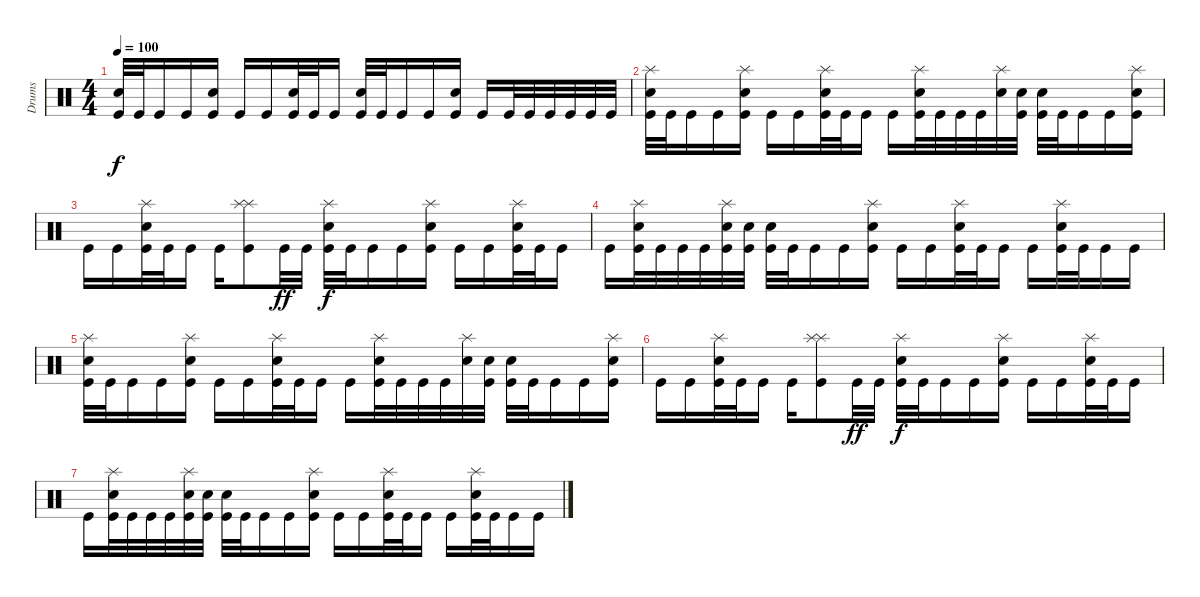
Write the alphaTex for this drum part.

\track ("Drums" "Drums") {instrument percussion}
\staff {score}
\articulation defaults
\ts (4 4)
\tempo 100
\clef neutral
\ks c
("Electric Snare (hit)" "Kick (hit)").32{dy f} "Kick (hit)".32 "Kick (hit)".16 "Kick (hit)".16 ("Electric Snare (hit)" "Kick (hit)").16 "Kick (hit)".16 "Kick (hit)".16 ("Electric Snare (hit)" "Kick (hit)").32 "Kick (hit)".32 "Kick (hit)".16 ("Electric Snare (hit)" "Kick (hit)").32 "Kick (hit)".32 "Kick (hit)".16 "Kick (hit)".16 ("Electric Snare (hit)" "Kick (hit)").16 "Kick (hit)".16 "Kick (hit)".32 "Kick (hit)".32 "Kick (hit)".32 "Kick (hit)".32 "Kick (hit)".32 "Kick (hit)".32 |
("Splash (hit)" "Electric Snare (hit)" "Kick (hit)").32 "Kick (hit)".32 "Kick (hit)".16 "Kick (hit)".16 ("Splash (hit)" "Electric Snare (hit)" "Kick (hit)").16 "Kick (hit)".16 "Kick (hit)".16 ("Splash (hit)" "Electric Snare (hit)" "Kick (hit)").32 "Kick (hit)".32 "Kick (hit)".16 "Kick (hit)".16 ("Splash (hit)" "Electric Snare (hit)" "Kick (hit)").32 "Kick (hit)".32 "Kick (hit)".32 "Kick (hit)".32 ("Splash (hit)" "Electric Snare (hit)").32 ("Electric Snare (hit)" "Kick (hit)").32 ("Electric Snare (hit)" "Kick (hit)").32 "Kick (hit)".32 "Kick (hit)".16 "Kick (hit)".16 ("Splash (hit)" "Electric Snare (hit)" "Kick (hit)").16 |
"Kick (hit)".16 "Kick (hit)".16 ("Splash (hit)" "Electric Snare (hit)" "Kick (hit)").32 "Kick (hit)".32 "Kick (hit)".16 "Kick (hit)".16 ("Splash (hit)" "Splash (hit)" "Kick (hit)").8 "Kick (hit)".32{dy ff} "Kick (hit)".32 ("Splash (hit)" "Electric Snare (hit)" "Kick (hit)").32{dy f} "Kick (hit)".32 "Kick (hit)".16 "Kick (hit)".16 ("Splash (hit)" "Electric Snare (hit)" "Kick (hit)").16 "Kick (hit)".16 "Kick (hit)".16 ("Splash (hit)" "Electric Snare (hit)" "Kick (hit)").32 "Kick (hit)".32 "Kick (hit)".16 |
"Kick (hit)".16 ("Splash (hit)" "Electric Snare (hit)" "Kick (hit)").32 "Kick (hit)".32 "Kick (hit)".32 "Kick (hit)".32 ("Splash (hit)" "Electric Snare (hit)" "Kick (hit)").32 ("Electric Snare (hit)" "Kick (hit)").32 ("Electric Snare (hit)" "Kick (hit)").32 "Kick (hit)".32 "Kick (hit)".16 "Kick (hit)".16 ("Splash (hit)" "Electric Snare (hit)" "Kick (hit)").16 "Kick (hit)".16 "Kick (hit)".16 ("Splash (hit)" "Electric Snare (hit)" "Kick (hit)").32 "Kick (hit)".32 "Kick (hit)".16 "Kick (hit)".16 ("Splash (hit)" "Electric Snare (hit)" "Kick (hit)").32 "Kick (hit)".32 "Kick (hit)".16 "Kick (hit)".16 |
("Splash (hit)" "Electric Snare (hit)" "Kick (hit)").32 "Kick (hit)".32 "Kick (hit)".16 "Kick (hit)".16 ("Splash (hit)" "Electric Snare (hit)" "Kick (hit)").16 "Kick (hit)".16 "Kick (hit)".16 ("Splash (hit)" "Electric Snare (hit)" "Kick (hit)").32 "Kick (hit)".32 "Kick (hit)".16 "Kick (hit)".16 ("Splash (hit)" "Electric Snare (hit)" "Kick (hit)").32 "Kick (hit)".32 "Kick (hit)".32 "Kick (hit)".32 ("Splash (hit)" "Electric Snare (hit)").32 ("Electric Snare (hit)" "Kick (hit)").32 ("Electric Snare (hit)" "Kick (hit)").32 "Kick (hit)".32 "Kick (hit)".16 "Kick (hit)".16 ("Splash (hit)" "Electric Snare (hit)" "Kick (hit)").16 |
"Kick (hit)".16 "Kick (hit)".16 ("Splash (hit)" "Electric Snare (hit)" "Kick (hit)").32 "Kick (hit)".32 "Kick (hit)".16 "Kick (hit)".16 ("Splash (hit)" "Splash (hit)" "Kick (hit)").8 "Kick (hit)".32{dy ff} "Kick (hit)".32 ("Splash (hit)" "Electric Snare (hit)" "Kick (hit)").32{dy f} "Kick (hit)".32 "Kick (hit)".16 "Kick (hit)".16 ("Splash (hit)" "Electric Snare (hit)" "Kick (hit)").16 "Kick (hit)".16 "Kick (hit)".16 ("Splash (hit)" "Electric Snare (hit)" "Kick (hit)").32 "Kick (hit)".32 "Kick (hit)".16 |
"Kick (hit)".16 ("Splash (hit)" "Electric Snare (hit)" "Kick (hit)").32 "Kick (hit)".32 "Kick (hit)".32 "Kick (hit)".32 ("Splash (hit)" "Electric Snare (hit)" "Kick (hit)").32 ("Electric Snare (hit)" "Kick (hit)").32 ("Electric Snare (hit)" "Kick (hit)").32 "Kick (hit)".32 "Kick (hit)".16 "Kick (hit)".16 ("Splash (hit)" "Electric Snare (hit)" "Kick (hit)").16 "Kick (hit)".16 "Kick (hit)".16 ("Splash (hit)" "Electric Snare (hit)" "Kick (hit)").32 "Kick (hit)".32 "Kick (hit)".16 "Kick (hit)".16 ("Splash (hit)" "Electric Snare (hit)" "Kick (hit)").32 "Kick (hit)".32 "Kick (hit)".16 "Kick (hit)".16
